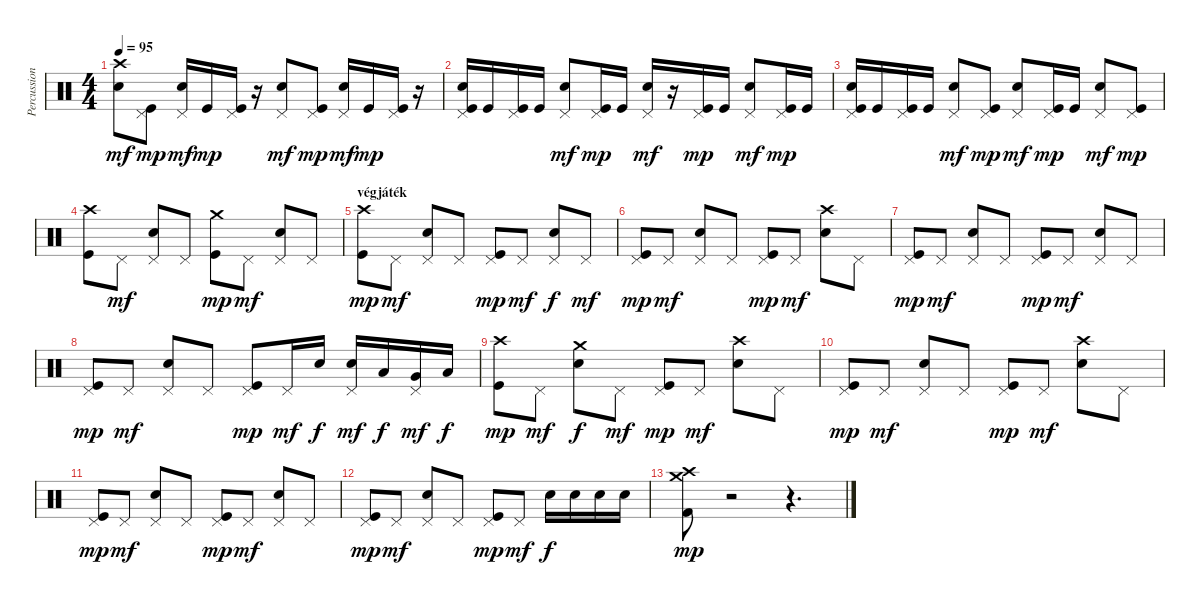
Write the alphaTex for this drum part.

\track ("Percussion" "Percussion") {instrument percussion}
\staff {score}
\articulation defaults
\ts (4 4)
\tempo 95
\clef neutral
\ks c
("Crash high (hit)" "Electric Snare (hit)").8{dy mf} ("Pedal Hi-Hat (hit)" "Kick (hit)").8{dy mp} ("Pedal Hi-Hat (hit)" "Electric Snare (hit)").16{dy mf} "Kick (hit)".16{dy mp} ("Pedal Hi-Hat (hit)" "Kick (hit)").16 r.16 ("Pedal Hi-Hat (hit)" "Electric Snare (hit)").8{dy mf} ("Pedal Hi-Hat (hit)" "Kick (hit)").8{dy mp} ("Pedal Hi-Hat (hit)" "Electric Snare (hit)").16{dy mf} "Kick (hit)".16{dy mp} ("Pedal Hi-Hat (hit)" "Kick (hit)").16 r.16 |
("Pedal Hi-Hat (hit)" "Kick (hit)" "Electric Snare (hit)").16 "Kick (hit)".16 ("Pedal Hi-Hat (hit)" "Kick (hit)").16 "Kick (hit)".16 ("Pedal Hi-Hat (hit)" "Electric Snare (hit)").8{dy mf} ("Pedal Hi-Hat (hit)" "Kick (hit)").16{dy mp} "Kick (hit)".16 ("Pedal Hi-Hat (hit)" "Electric Snare (hit)").16{dy mf} r.16 ("Pedal Hi-Hat (hit)" "Kick (hit)").16{dy mp} "Kick (hit)".16 ("Pedal Hi-Hat (hit)" "Electric Snare (hit)").8{dy mf} ("Pedal Hi-Hat (hit)" "Kick (hit)").16{dy mp} "Kick (hit)".16 |
("Pedal Hi-Hat (hit)" "Kick (hit)" "Electric Snare (hit)").16 "Kick (hit)".16 ("Pedal Hi-Hat (hit)" "Kick (hit)").16 "Kick (hit)".16 ("Pedal Hi-Hat (hit)" "Electric Snare (hit)").8{dy mf} ("Pedal Hi-Hat (hit)" "Kick (hit)").8{dy mp} ("Pedal Hi-Hat (hit)" "Electric Snare (hit)").8{dy mf} ("Pedal Hi-Hat (hit)" "Kick (hit)").16{dy mp} "Kick (hit)".16 ("Pedal Hi-Hat (hit)" "Electric Snare (hit)").8{dy mf} ("Pedal Hi-Hat (hit)" "Kick (hit)").8{dy mp} |
("Crash high (hit)" "Kick (hit)").8 "Pedal Hi-Hat (hit)".8{dy mf} ("Pedal Hi-Hat (hit)" "Electric Snare (hit)").8 "Pedal Hi-Hat (hit)".8 ("Crash medium (hit)" "Kick (hit)").8{dy mp} "Pedal Hi-Hat (hit)".8{dy mf} ("Pedal Hi-Hat (hit)" "Electric Snare (hit)").8 "Pedal Hi-Hat (hit)".8 |
\section ("" "végjáték")
("Crash high (hit)" "Kick (hit)").8{dy mp} "Pedal Hi-Hat (hit)".8{dy mf} ("Pedal Hi-Hat (hit)" "Electric Snare (hit)").8 "Pedal Hi-Hat (hit)".8 ("Pedal Hi-Hat (hit)" "Kick (hit)").8{dy mp} "Pedal Hi-Hat (hit)".8{dy mf} ("Pedal Hi-Hat (hit)" "Electric Snare (hit)").8{dy f} "Pedal Hi-Hat (hit)".8{dy mf} |
("Pedal Hi-Hat (hit)" "Kick (hit)").8{dy mp} "Pedal Hi-Hat (hit)".8{dy mf} ("Pedal Hi-Hat (hit)" "Electric Snare (hit)").8 "Pedal Hi-Hat (hit)".8 ("Pedal Hi-Hat (hit)" "Kick (hit)").8{dy mp} "Pedal Hi-Hat (hit)".8{dy mf} ("Crash high (hit)" "Electric Snare (hit)").8 "Pedal Hi-Hat (hit)".8 |
("Pedal Hi-Hat (hit)" "Kick (hit)").8{dy mp} "Pedal Hi-Hat (hit)".8{dy mf} ("Pedal Hi-Hat (hit)" "Electric Snare (hit)").8 "Pedal Hi-Hat (hit)".8 ("Pedal Hi-Hat (hit)" "Kick (hit)").8{dy mp} "Pedal Hi-Hat (hit)".8{dy mf} ("Pedal Hi-Hat (hit)" "Electric Snare (hit)").8 "Pedal Hi-Hat (hit)".8 |
("Pedal Hi-Hat (hit)" "Kick (hit)").8{dy mp} "Pedal Hi-Hat (hit)".8{dy mf} ("Pedal Hi-Hat (hit)" "Electric Snare (hit)").8 "Pedal Hi-Hat (hit)".8 ("Pedal Hi-Hat (hit)" "Kick (hit)").8{dy mp} "Pedal Hi-Hat (hit)".16{dy mf} "Electric Snare (hit)".16{dy f} ("Pedal Hi-Hat (hit)" "Electric Snare (hit)").16{dy mf} "Low Tom (hit)".16{dy f} ("Pedal Hi-Hat (hit)" "Very Low Tom (hit)").16{dy mf} "Low Floor Tom (hit)".16{dy f} |
("Crash high (hit)" "Kick (hit)").8{dy mp} "Pedal Hi-Hat (hit)".8{dy mf} ("Crash medium (hit)" "Electric Snare (hit)").8{dy f} "Pedal Hi-Hat (hit)".8{dy mf} ("Pedal Hi-Hat (hit)" "Kick (hit)").8{dy mp} "Pedal Hi-Hat (hit)".8{dy mf} ("Crash high (hit)" "Electric Snare (hit)").8 "Pedal Hi-Hat (hit)".8 |
("Pedal Hi-Hat (hit)" "Kick (hit)").8{dy mp} "Pedal Hi-Hat (hit)".8{dy mf} ("Pedal Hi-Hat (hit)" "Electric Snare (hit)").8 "Pedal Hi-Hat (hit)".8 ("Pedal Hi-Hat (hit)" "Kick (hit)").8{dy mp} "Pedal Hi-Hat (hit)".8{dy mf} ("Crash high (hit)" "Electric Snare (hit)").8 "Pedal Hi-Hat (hit)".8 |
("Pedal Hi-Hat (hit)" "Kick (hit)").8{dy mp} "Pedal Hi-Hat (hit)".8{dy mf} ("Pedal Hi-Hat (hit)" "Electric Snare (hit)").8 "Pedal Hi-Hat (hit)".8 ("Pedal Hi-Hat (hit)" "Kick (hit)").8{dy mp} "Pedal Hi-Hat (hit)".8{dy mf} ("Pedal Hi-Hat (hit)" "Electric Snare (hit)").8 "Pedal Hi-Hat (hit)".8 |
("Pedal Hi-Hat (hit)" "Kick (hit)").8{dy mp} "Pedal Hi-Hat (hit)".8{dy mf} ("Pedal Hi-Hat (hit)" "Electric Snare (hit)").8 "Pedal Hi-Hat (hit)".8 ("Pedal Hi-Hat (hit)" "Kick (hit)").8{dy mp} "Pedal Hi-Hat (hit)".8{dy mf} "Electric Snare (hit)".16{dy f} "Electric Snare (hit)".16 "Electric Snare (hit)".16 "Electric Snare (hit)".16 |
("Crash high (hit)" "Crash medium (hit)" "Kick (hit) 2").8{dy mp} r.2 r.4{d}
